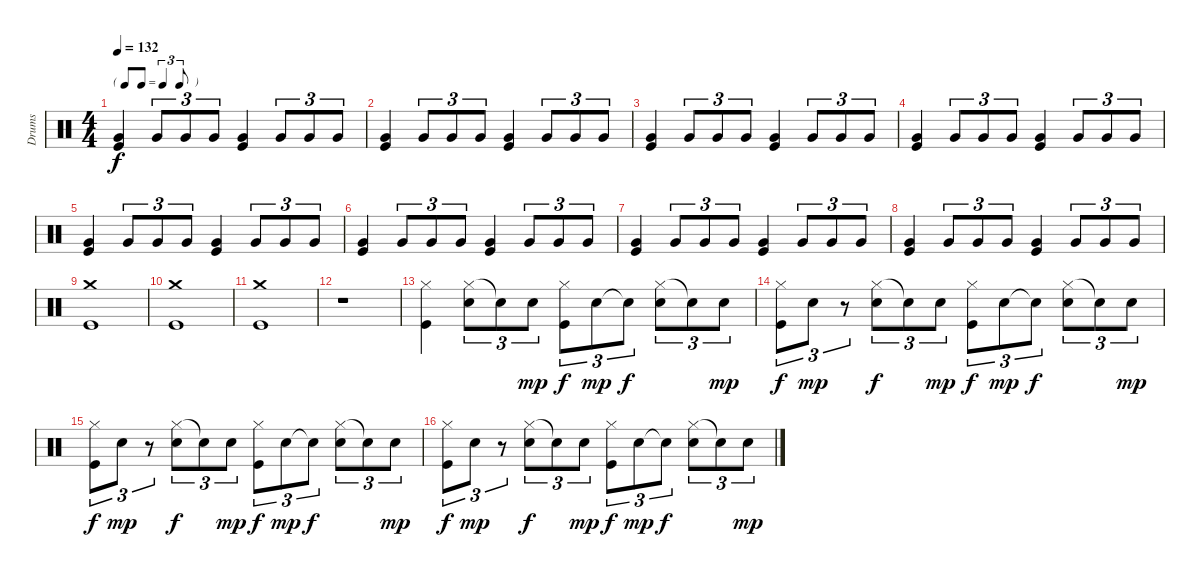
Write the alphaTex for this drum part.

\track ("Drums" "Drums") {instrument percussion}
\staff {score}
\articulation defaults
\ts (4 4)
\tf triplet8th
\tempo 132
\clef neutral
\ks c
("Very Low Tom (hit)" "Kick (hit)").4{dy f} "Very Low Tom (hit)".8{tu (3 2)} "Very Low Tom (hit)".8{tu (3 2)} "Very Low Tom (hit)".8{tu (3 2)} ("Very Low Tom (hit)" "Kick (hit)").4 "Very Low Tom (hit)".8{tu (3 2)} "Very Low Tom (hit)".8{tu (3 2)} "Very Low Tom (hit)".8{tu (3 2)} |
("Very Low Tom (hit)" "Kick (hit)").4 "Very Low Tom (hit)".8{tu (3 2)} "Very Low Tom (hit)".8{tu (3 2)} "Very Low Tom (hit)".8{tu (3 2)} ("Very Low Tom (hit)" "Kick (hit)").4 "Very Low Tom (hit)".8{tu (3 2)} "Very Low Tom (hit)".8{tu (3 2)} "Very Low Tom (hit)".8{tu (3 2)} |
("Very Low Tom (hit)" "Kick (hit)").4 "Very Low Tom (hit)".8{tu (3 2)} "Very Low Tom (hit)".8{tu (3 2)} "Very Low Tom (hit)".8{tu (3 2)} ("Very Low Tom (hit)" "Kick (hit)").4 "Very Low Tom (hit)".8{tu (3 2)} "Very Low Tom (hit)".8{tu (3 2)} "Very Low Tom (hit)".8{tu (3 2)} |
("Very Low Tom (hit)" "Kick (hit)").4 "Very Low Tom (hit)".8{tu (3 2)} "Very Low Tom (hit)".8{tu (3 2)} "Very Low Tom (hit)".8{tu (3 2)} ("Very Low Tom (hit)" "Kick (hit)").4 "Very Low Tom (hit)".8{tu (3 2)} "Very Low Tom (hit)".8{tu (3 2)} "Very Low Tom (hit)".8{tu (3 2)} |
("Very Low Tom (hit)" "Kick (hit)").4 "Very Low Tom (hit)".8{tu (3 2)} "Very Low Tom (hit)".8{tu (3 2)} "Very Low Tom (hit)".8{tu (3 2)} ("Very Low Tom (hit)" "Kick (hit)").4 "Very Low Tom (hit)".8{tu (3 2)} "Very Low Tom (hit)".8{tu (3 2)} "Very Low Tom (hit)".8{tu (3 2)} |
("Very Low Tom (hit)" "Kick (hit)").4 "Very Low Tom (hit)".8{tu (3 2)} "Very Low Tom (hit)".8{tu (3 2)} "Very Low Tom (hit)".8{tu (3 2)} ("Very Low Tom (hit)" "Kick (hit)").4 "Very Low Tom (hit)".8{tu (3 2)} "Very Low Tom (hit)".8{tu (3 2)} "Very Low Tom (hit)".8{tu (3 2)} |
("Very Low Tom (hit)" "Kick (hit)").4 "Very Low Tom (hit)".8{tu (3 2)} "Very Low Tom (hit)".8{tu (3 2)} "Very Low Tom (hit)".8{tu (3 2)} ("Very Low Tom (hit)" "Kick (hit)").4 "Very Low Tom (hit)".8{tu (3 2)} "Very Low Tom (hit)".8{tu (3 2)} "Very Low Tom (hit)".8{tu (3 2)} |
("Very Low Tom (hit)" "Kick (hit)").4 "Very Low Tom (hit)".8{tu (3 2)} "Very Low Tom (hit)".8{tu (3 2)} "Very Low Tom (hit)".8{tu (3 2)} ("Very Low Tom (hit)" "Kick (hit)").4 "Very Low Tom (hit)".8{tu (3 2)} "Very Low Tom (hit)".8{tu (3 2)} "Very Low Tom (hit)".8{tu (3 2)} |
("Crash medium (hit)" "Kick (hit)").1 |
("Crash medium (hit)" "Kick (hit)").1 |
("Crash medium (hit)" "Kick (hit)").1 |
r.1 |
("Hi-Hat (closed)" "Kick (hit)").4 ("Hi-Hat (closed)" "Electric Snare (hit)").8{tu (3 2)} "Snare (hit)"{t}.8{tu (3 2)} "Electric Snare (hit)".8{tu (3 2) dy mp} ("Hi-Hat (closed)" "Kick (hit)").8{tu (3 2) dy f} "Electric Snare (hit)".8{tu (3 2) dy mp} "Snare (hit)"{t}.8{tu (3 2) dy f} ("Hi-Hat (closed)" "Electric Snare (hit)").8{tu (3 2)} "Snare (hit)"{t}.8{tu (3 2)} "Electric Snare (hit)".8{tu (3 2) dy mp} |
("Hi-Hat (closed)" "Kick (hit)").8{tu (3 2) dy f} "Electric Snare (hit)".8{tu (3 2) dy mp} r.8{tu (3 2)} ("Hi-Hat (closed)" "Electric Snare (hit)").8{tu (3 2) dy f} "Snare (hit)"{t}.8{tu (3 2)} "Electric Snare (hit)".8{tu (3 2) dy mp} ("Hi-Hat (closed)" "Kick (hit)").8{tu (3 2) dy f} "Electric Snare (hit)".8{tu (3 2) dy mp} "Snare (hit)"{t}.8{tu (3 2) dy f} ("Hi-Hat (closed)" "Electric Snare (hit)").8{tu (3 2)} "Snare (hit)"{t}.8{tu (3 2)} "Electric Snare (hit)".8{tu (3 2) dy mp} |
("Hi-Hat (closed)" "Kick (hit)").8{tu (3 2) dy f} "Electric Snare (hit)".8{tu (3 2) dy mp} r.8{tu (3 2)} ("Hi-Hat (closed)" "Electric Snare (hit)").8{tu (3 2) dy f} "Snare (hit)"{t}.8{tu (3 2)} "Electric Snare (hit)".8{tu (3 2) dy mp} ("Hi-Hat (closed)" "Kick (hit)").8{tu (3 2) dy f} "Electric Snare (hit)".8{tu (3 2) dy mp} "Snare (hit)"{t}.8{tu (3 2) dy f} ("Hi-Hat (closed)" "Electric Snare (hit)").8{tu (3 2)} "Snare (hit)"{t}.8{tu (3 2)} "Electric Snare (hit)".8{tu (3 2) dy mp} |
("Hi-Hat (closed)" "Kick (hit)").8{tu (3 2) dy f} "Electric Snare (hit)".8{tu (3 2) dy mp} r.8{tu (3 2)} ("Hi-Hat (closed)" "Electric Snare (hit)").8{tu (3 2) dy f} "Snare (hit)"{t}.8{tu (3 2)} "Electric Snare (hit)".8{tu (3 2) dy mp} ("Hi-Hat (closed)" "Kick (hit)").8{tu (3 2) dy f} "Electric Snare (hit)".8{tu (3 2) dy mp} "Snare (hit)"{t}.8{tu (3 2) dy f} ("Hi-Hat (closed)" "Electric Snare (hit)").8{tu (3 2)} "Snare (hit)"{t}.8{tu (3 2)} "Electric Snare (hit)".8{tu (3 2) dy mp}
